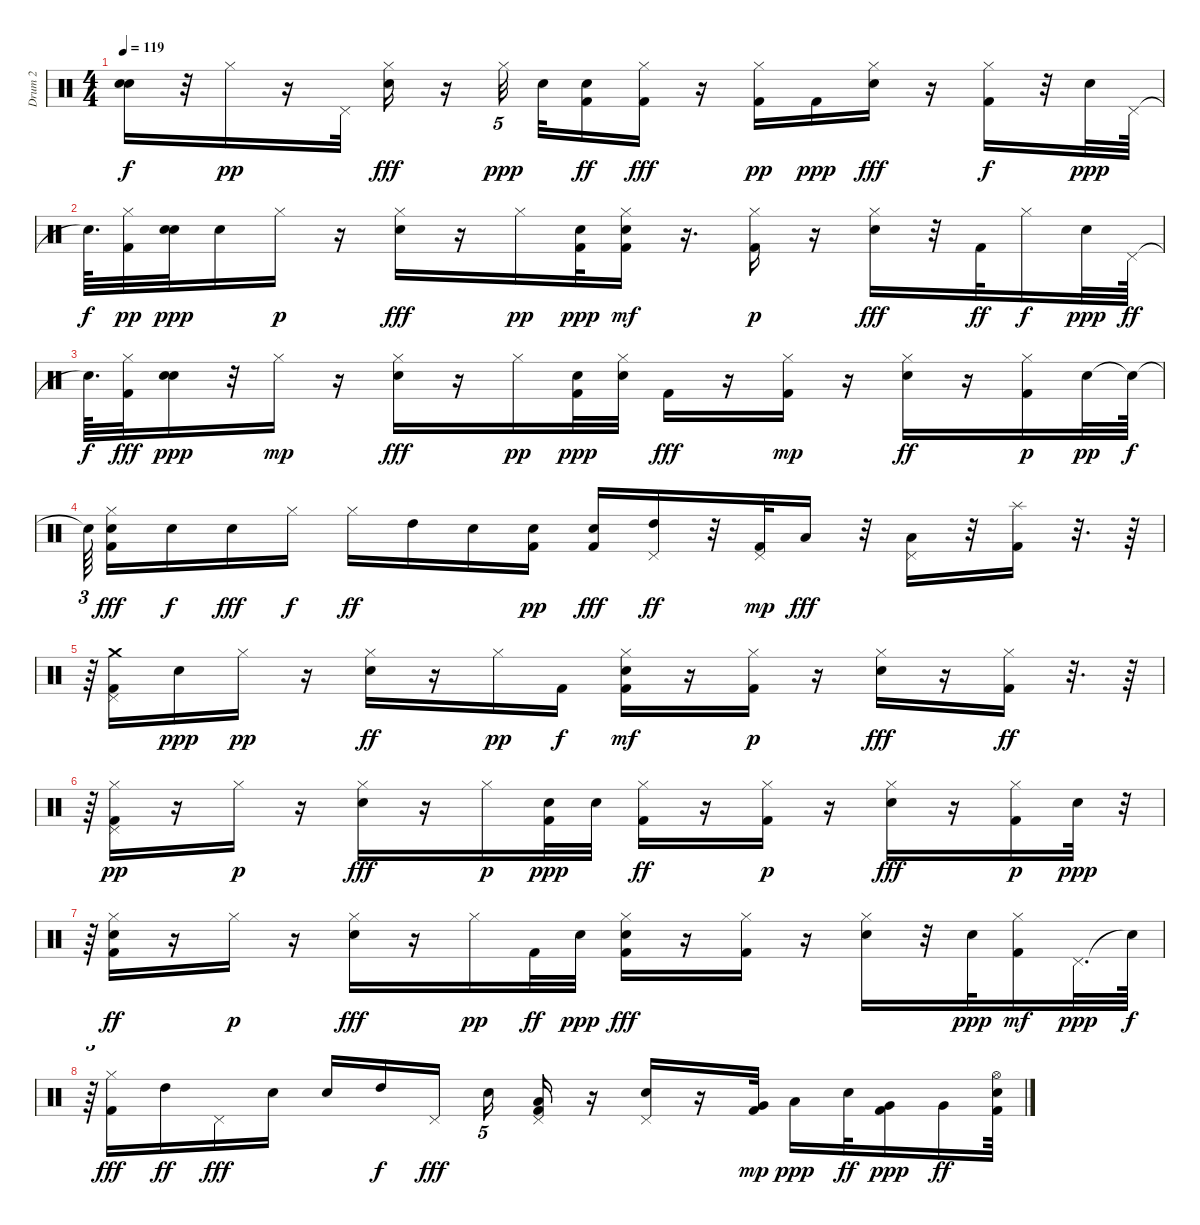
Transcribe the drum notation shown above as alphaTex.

\track ("Drum 2                          " "Drum 2    ") {instrument percussion}
\staff {score}
\articulation defaults
\ts (4 4)
\tempo 119
\clef neutral
\ks c
("Snare (hit)"{t} "Snare (hit)"{t}).16{dy f} r.32 "Hi-Hat (closed)".16{dy pp} r.16 "Pedal Hi-Hat (hit)".32 ("Snare (hit) 2" "Hi-Hat (closed)").16{dy fff} r.16 "Hi-Hat (closed)".32{tu (5 4) dy ppp beam splitsecondary} "Snare (hit) 2".32 ("Snare (hit) 2" "Kick (hit) 2").16{dy ff} ("Hi-Hat (closed)" "Kick (hit) 2").16{dy fff} r.16 ("Kick (hit) 2" "Hi-Hat (closed)").16{dy pp} "Kick (hit) 2".16{dy ppp} ("Hi-Hat (closed)" "Snare (hit) 2").16{dy fff} r.16 ("Kick (hit) 2" "Hi-Hat (closed)").16{dy f} r.32 "Snare (hit) 2".32{dy ppp} "Pedal Hi-Hat (hit)".64 |
"Snare (hit)"{t}.64{d dy f} ("Kick (hit) 2" "Hi-Hat (closed)").32{dy pp} ("Snare (hit) 2" "Snare (hit) 2").32{dy ppp} "Snare (hit) 2".16 "Hi-Hat (closed)".16{dy p} r.16 ("Snare (hit) 2" "Hi-Hat (closed)").16{dy fff} r.16 "Hi-Hat (closed)".16{dy pp} ("Kick (hit) 2" "Snare (hit) 2").32{dy ppp} ("Snare (hit) 2" "Kick (hit) 2" "Hi-Hat (closed)").16{dy mf} r.16{d} ("Kick (hit) 2" "Hi-Hat (closed)").16{dy p} r.16 ("Hi-Hat (closed)" "Snare (hit) 2").16{dy fff} r.32 "Kick (hit) 2".32{dy ff} "Hi-Hat (closed)".16{dy f} "Snare (hit) 2".32{dy ppp} "Pedal Hi-Hat (hit)".64{dy ff} |
"Snare (hit)"{t}.64{d dy f} ("Hi-Hat (closed)" "Kick (hit) 2").32{dy fff} ("Snare (hit) 2" "Snare (hit) 2").16{dy ppp} r.32 "Hi-Hat (closed)".16{dy mp} r.16 ("Hi-Hat (closed)" "Snare (hit) 2").16{dy fff} r.16 "Hi-Hat (closed)".16{dy pp} ("Kick (hit) 2" "Snare (hit) 2").32{dy ppp} ("Snare (hit) 2" "Hi-Hat (closed)").32 "Kick (hit) 2".16{dy fff} r.16 ("Kick (hit) 2" "Hi-Hat (closed)").16{dy mp} r.16 ("Snare (hit) 2" "Hi-Hat (closed)").16{dy ff} r.16 ("Kick (hit) 2" "Hi-Hat (closed)").16{dy p} "Snare (hit) 2".32{dy pp} "Snare (hit)"{t}.64{dy f} |
"Snare (hit)"{t}.64{tu (3 2) beam splitsecondary} ("Snare (hit) 2" "Hi-Hat (closed)" "Kick (hit) 2").16{dy fff} "Electric Snare (hit)".16{dy f} "Electric Snare (hit)".16{dy fff} "Hi-Hat (closed)".16{dy f} "Hi-Hat (closed)".16{dy ff} "High Tom (hit)".16 "Electric Snare (hit)".16 ("Snare (hit) 2" "Kick (hit) 2").16{dy pp} ("Kick (hit) 2" "Snare (hit) 2").16{dy fff} ("Pedal Hi-Hat (hit)" "High Tom (hit)").16{dy ff} r.32 ("Pedal Hi-Hat (hit)" "Kick (hit) 2").32{dy mp} "Low Tom (hit)".16{dy fff} r.32 ("Pedal Hi-Hat (hit)" "Low Tom (hit)").16 r.32 ("Kick (hit) 2" "Splash (hit)").16 r.32{d} r.64 |
r.64{tu (3 2)} ("Pedal Hi-Hat (hit)" "Crash medium (hit)" "Kick (hit) 2").16 "Snare (hit) 2".16{dy ppp} "Hi-Hat (closed)".16{dy pp} r.16 ("Snare (hit) 2" "Hi-Hat (closed)").16{dy ff} r.16 "Hi-Hat (closed)".16{dy pp} "Kick (hit) 2".16{dy f} ("Snare (hit) 2" "Kick (hit) 2" "Hi-Hat (closed)").16{dy mf} r.16 ("Kick (hit) 2" "Hi-Hat (closed)").16{dy p} r.16 ("Snare (hit) 2" "Hi-Hat (closed)").16{dy fff} r.16 ("Kick (hit) 2" "Hi-Hat (closed)").16{dy ff} r.32{d} r.64 |
r.64{tu (3 2)} ("Pedal Hi-Hat (hit)" "Kick (hit) 2" "Hi-Hat (closed)").16{dy pp} r.16 "Hi-Hat (closed)".16{dy p} r.16 ("Hi-Hat (closed)" "Snare (hit) 2").16{dy fff} r.16 "Hi-Hat (closed)".16{dy p} ("Snare (hit) 2" "Kick (hit) 2").32{dy ppp} "Snare (hit) 2".32 ("Kick (hit) 2" "Hi-Hat (closed)").16{dy ff} r.16 ("Kick (hit) 2" "Hi-Hat (closed)").16{dy p} r.16 ("Snare (hit) 2" "Hi-Hat (closed)").16{dy fff} r.16 ("Kick (hit) 2" "Hi-Hat (closed)").16{dy p} "Snare (hit) 2".32{dy ppp} r.32{tu (3 2)} |
r.64{tu (3 2)} ("Kick (hit) 2" "Snare (hit) 2" "Hi-Hat (closed)").16{dy ff} r.16 "Hi-Hat (closed)".16{dy p} r.16 ("Hi-Hat (closed)" "Snare (hit) 2").16{dy fff} r.16 "Hi-Hat (closed)".16{dy pp} "Kick (hit) 2".32{dy ff} "Snare (hit) 2".32{dy ppp} ("Snare (hit) 2" "Hi-Hat (closed)" "Kick (hit) 2").16{dy fff} r.16 ("Hi-Hat (closed)" "Kick (hit) 2").16 r.16 ("Snare (hit) 2" "Hi-Hat (closed)").16 r.32 "Snare (hit) 2".32{dy ppp} ("Kick (hit) 2" "Hi-Hat (closed)").16{dy mf} "Pedal Hi-Hat (hit)".32{d dy ppp} "Snare (hit)"{t}.64{dy f} |
r.64{tu (3 2)} ("Hi-Hat (closed)" "Kick (hit) 2").16{dy fff} "High Tom (hit)".16{dy ff} "Pedal Hi-Hat (hit)".16{dy fff} "Snare (hit) 2".16 "Snare (hit) 2".16 "High Tom (hit)".16{dy f} "Pedal Hi-Hat (hit)".16{dy fff beam splitsecondary} "Snare (hit) 2".16{tu (5 4)} ("Pedal Hi-Hat (hit)" "Kick (hit) 2" "Low Tom (hit)").16 r.16 ("Pedal Hi-Hat (hit)" "Snare (hit) 2").16 r.16 ("Very Low Tom (hit)" "Kick (hit) 2").32{dy mp} "Low Floor Tom (hit)".16{dy ppp} "Electric Snare (hit)".32{dy ff} ("Kick (hit) 2" "Very Low Tom (hit)").16{dy ppp} "Very Low Tom (hit)".16{dy ff} ("Snare (hit) 2" "Kick (hit) 2" "Hi-Hat (open)").64
